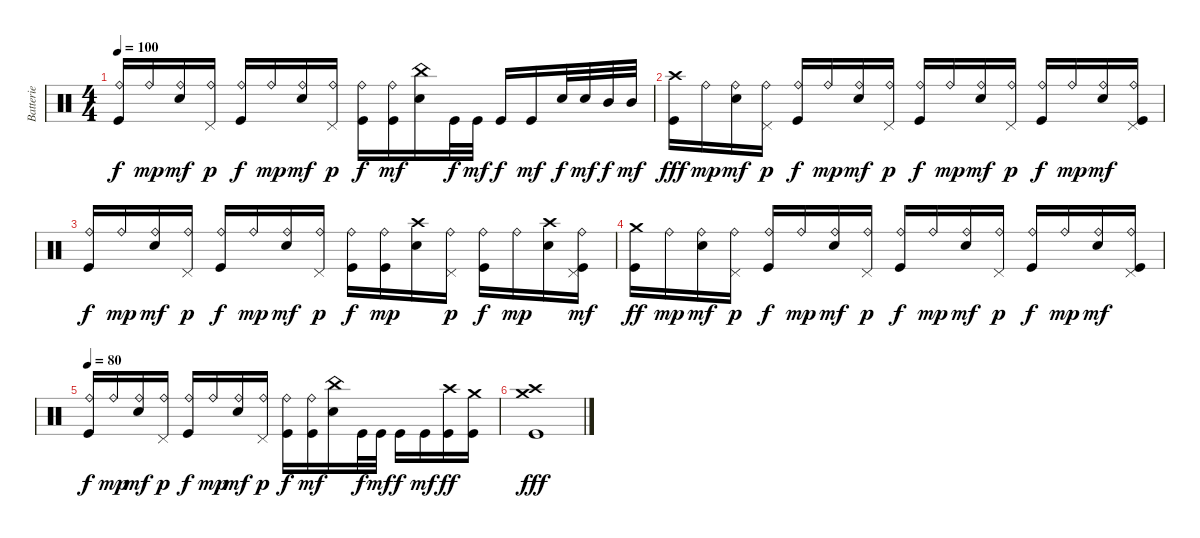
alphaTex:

\track ("Batterie" "Batterie") {instrument percussion}
\staff {score}
\articulation defaults
\ts (4 4)
\tempo 100
\clef neutral
\ks c
("Ride (bell)" "Kick (hit)").16{dy f} "Ride (bell)".16{dy mp} ("Ride (bell)" "Snare (hit) 2").16{dy mf} ("Ride (bell)" "Pedal Hi-Hat (hit)").16{dy p} ("Ride (bell)" "Kick (hit)").16{dy f} "Ride (bell)".16{dy mp} ("Ride (bell)" "Snare (hit) 2").16{dy mf} ("Ride (bell)" "Pedal Hi-Hat (hit)").16{dy p} ("Ride (bell)" "Kick (hit)").16{dy f} ("Ride (bell)" "Kick (hit)").16{dy mf} ("China (hit)" "Snare (hit) 2").16 "Kick (hit)".32{dy f} "Kick (hit)".32{dy mf} "Kick (hit)".16{dy f} "Kick (hit)".16{dy mf} "Snare (hit) 2".32{dy f} "Snare (hit) 2".32{dy mf} "Mid Tom (hit)".32{dy f} "Mid Tom (hit)".32{dy mf} |
("Crash high (hit)" "Kick (hit)").16{dy fff} "Ride (bell)".16{dy mp} ("Ride (bell)" "Snare (hit) 2").16{dy mf} ("Ride (bell)" "Pedal Hi-Hat (hit)").16{dy p} ("Ride (bell)" "Kick (hit)").16{dy f} "Ride (bell)".16{dy mp} ("Ride (bell)" "Snare (hit) 2").16{dy mf} ("Ride (bell)" "Pedal Hi-Hat (hit)").16{dy p} ("Ride (bell)" "Kick (hit)").16{dy f} "Ride (bell)".16{dy mp} ("Ride (bell)" "Snare (hit) 2").16{dy mf} ("Ride (bell)" "Pedal Hi-Hat (hit)").16{dy p} ("Ride (bell)" "Kick (hit)").16{dy f} "Ride (bell)".16{dy mp} ("Ride (bell)" "Snare (hit) 2").16{dy mf} ("Ride (bell)" "Pedal Hi-Hat (hit)" "Kick (hit)").16 |
("Ride (bell)" "Kick (hit)").16{dy f} "Ride (bell)".16{dy mp} ("Ride (bell)" "Snare (hit) 2").16{dy mf} ("Ride (bell)" "Pedal Hi-Hat (hit)").16{dy p} ("Ride (bell)" "Kick (hit)").16{dy f} "Ride (bell)".16{dy mp} ("Ride (bell)" "Snare (hit) 2").16{dy mf} ("Ride (bell)" "Pedal Hi-Hat (hit)").16{dy p} ("Ride (bell)" "Kick (hit)").16{dy f} ("Ride (bell)" "Kick (hit)").16{dy mp} ("Crash high (hit)" "Snare (hit) 2").16 ("Ride (bell)" "Pedal Hi-Hat (hit)").16{dy p} ("Ride (bell)" "Kick (hit)").16{dy f} "Ride (bell)".16{dy mp} ("Crash high (hit)" "Snare (hit) 2").16 ("Ride (bell)" "Pedal Hi-Hat (hit)" "Kick (hit)").16{dy mf} |
("Crash medium (hit)" "Kick (hit)").16{dy ff} "Ride (bell)".16{dy mp} ("Ride (bell)" "Snare (hit) 2").16{dy mf} ("Ride (bell)" "Pedal Hi-Hat (hit)").16{dy p} ("Ride (bell)" "Kick (hit)").16{dy f} "Ride (bell)".16{dy mp} ("Ride (bell)" "Snare (hit) 2").16{dy mf} ("Ride (bell)" "Pedal Hi-Hat (hit)").16{dy p} ("Ride (bell)" "Kick (hit)").16{dy f} "Ride (bell)".16{dy mp} ("Ride (bell)" "Snare (hit) 2").16{dy mf} ("Ride (bell)" "Pedal Hi-Hat (hit)").16{dy p} ("Ride (bell)" "Kick (hit)").16{dy f} "Ride (bell)".16{dy mp} ("Ride (bell)" "Snare (hit) 2").16{dy mf} ("Ride (bell)" "Pedal Hi-Hat (hit)" "Kick (hit)").16 |
\tempo 80
("Ride (bell)" "Kick (hit)").16{dy f} "Ride (bell)".16{dy mp} ("Ride (bell)" "Snare (hit) 2").16{dy mf} ("Ride (bell)" "Pedal Hi-Hat (hit)").16{dy p} ("Ride (bell)" "Kick (hit)").16{dy f} "Ride (bell)".16{dy mp} ("Ride (bell)" "Snare (hit) 2").16{dy mf} ("Ride (bell)" "Pedal Hi-Hat (hit)").16{dy p} ("Ride (bell)" "Kick (hit)").16{dy f} ("Ride (bell)" "Kick (hit)").16{dy mf} ("China (hit)" "Snare (hit) 2").16 "Kick (hit)".32{dy f} "Kick (hit)".32{dy mf} "Kick (hit)".16{dy f} "Kick (hit)".16{dy mf} ("Crash high (hit)" "Kick (hit)").16{dy ff} ("Crash medium (hit)" "Kick (hit)").16 |
("Crash medium (hit)" "Crash high (hit)" "Kick (hit)").1{dy fff}
